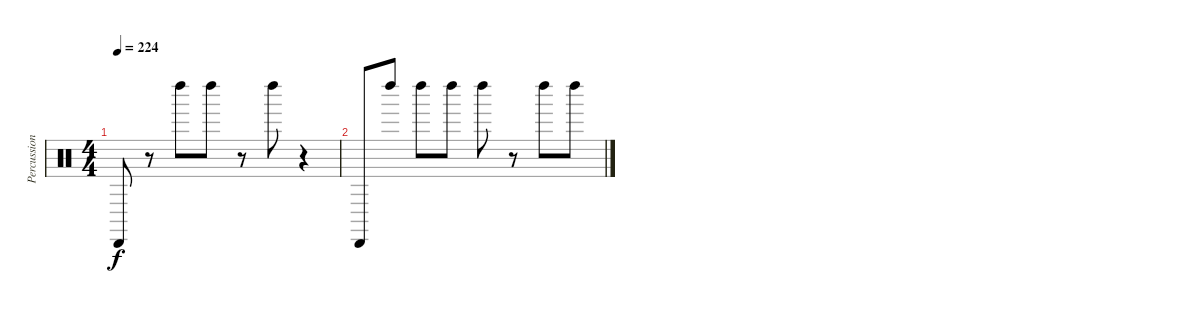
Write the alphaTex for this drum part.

\track ("Percussion" "Percussion") {solo instrument percussion}
\staff {score}
\articulation defaults
\ts (4 4)
\tempo 224
\clef neutral
\ks c "Cabasa (hit)".8{dy f}
r.8 "Left Maraca (hit)".8 "Left Maraca (hit)".8 r.8 "Left Maraca (hit)".8 r.4 |
"Cabasa (hit)".8 "Left Maraca (hit)".8 "Left Maraca (hit)".8 "Left Maraca (hit)".8 "Left Maraca (hit)".8 r.8 "Left Maraca (hit)".8 "Left Maraca (hit)".8
